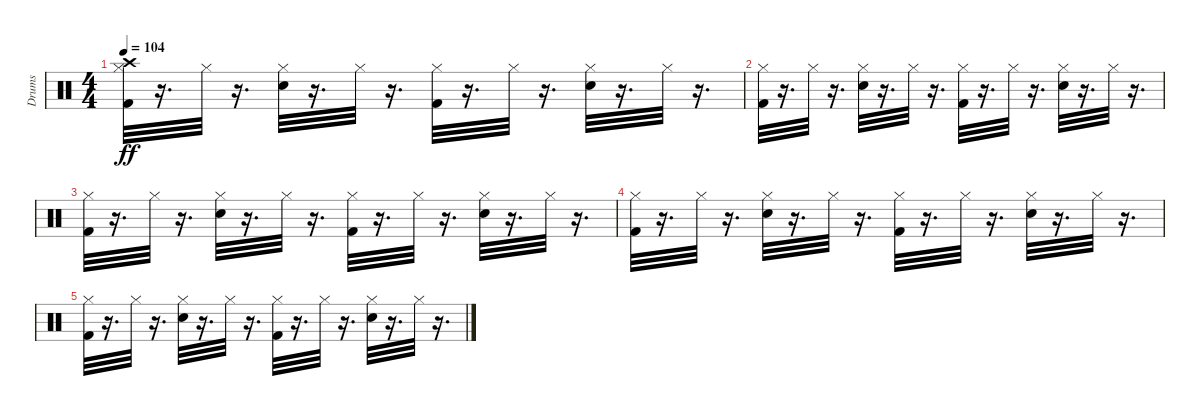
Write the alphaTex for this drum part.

\track ("Drums" "Drums") {instrument percussion}
\staff {score}
\articulation defaults
\ts (4 4)
\tempo 104
\clef neutral
\ks c
("Kick (hit) 2" "Hi-Hat (closed)" "Crash high (hit)").32{dy ff volume 3 balance 8} r.16{d} "Hi-Hat (closed)".32 r.16{d} ("Snare (hit) 2" "Hi-Hat (closed)").32 r.16{d} "Hi-Hat (closed)".32 r.16{d} ("Kick (hit) 2" "Hi-Hat (closed)").32 r.16{d} "Hi-Hat (closed)".32 r.16{d} ("Snare (hit) 2" "Hi-Hat (closed)").32 r.16{d} "Hi-Hat (closed)".32 r.16{d} |
("Kick (hit) 2" "Hi-Hat (closed)").32{volume 2 balance 8} r.16{d} "Hi-Hat (closed)".32 r.16{d} ("Snare (hit) 2" "Hi-Hat (closed)").32 r.16{d} "Hi-Hat (closed)".32 r.16{d} ("Kick (hit) 2" "Hi-Hat (closed)").32 r.16{d} "Hi-Hat (closed)".32 r.16{d} ("Snare (hit) 2" "Hi-Hat (closed)").32 r.16{d} "Hi-Hat (closed)".32 r.16{d} |
("Kick (hit) 2" "Hi-Hat (closed)").32{volume 2 balance 8} r.16{d} "Hi-Hat (closed)".32 r.16{d} ("Snare (hit) 2" "Hi-Hat (closed)").32 r.16{d} "Hi-Hat (closed)".32 r.16{d} ("Kick (hit) 2" "Hi-Hat (closed)").32 r.16{d} "Hi-Hat (closed)".32 r.16{d} ("Snare (hit) 2" "Hi-Hat (closed)").32 r.16{d} "Hi-Hat (closed)".32 r.16{d} |
("Kick (hit) 2" "Hi-Hat (closed)").32{volume 1 balance 8} r.16{d} "Hi-Hat (closed)".32 r.16{d} ("Snare (hit) 2" "Hi-Hat (closed)").32 r.16{d} "Hi-Hat (closed)".32 r.16{d} ("Kick (hit) 2" "Hi-Hat (closed)").32 r.16{d} "Hi-Hat (closed)".32 r.16{d} ("Snare (hit) 2" "Hi-Hat (closed)").32 r.16{d} "Hi-Hat (closed)".32 r.16{d} |
("Kick (hit) 2" "Hi-Hat (closed)").32{volume 1 balance 8} r.16{d} "Hi-Hat (closed)".32 r.16{d} ("Snare (hit) 2" "Hi-Hat (closed)").32 r.16{d} "Hi-Hat (closed)".32 r.16{d} ("Kick (hit) 2" "Hi-Hat (closed)").32 r.16{d} "Hi-Hat (closed)".32 r.16{d} ("Snare (hit) 2" "Hi-Hat (closed)").32 r.16{d} "Hi-Hat (closed)".32 r.16{d}
